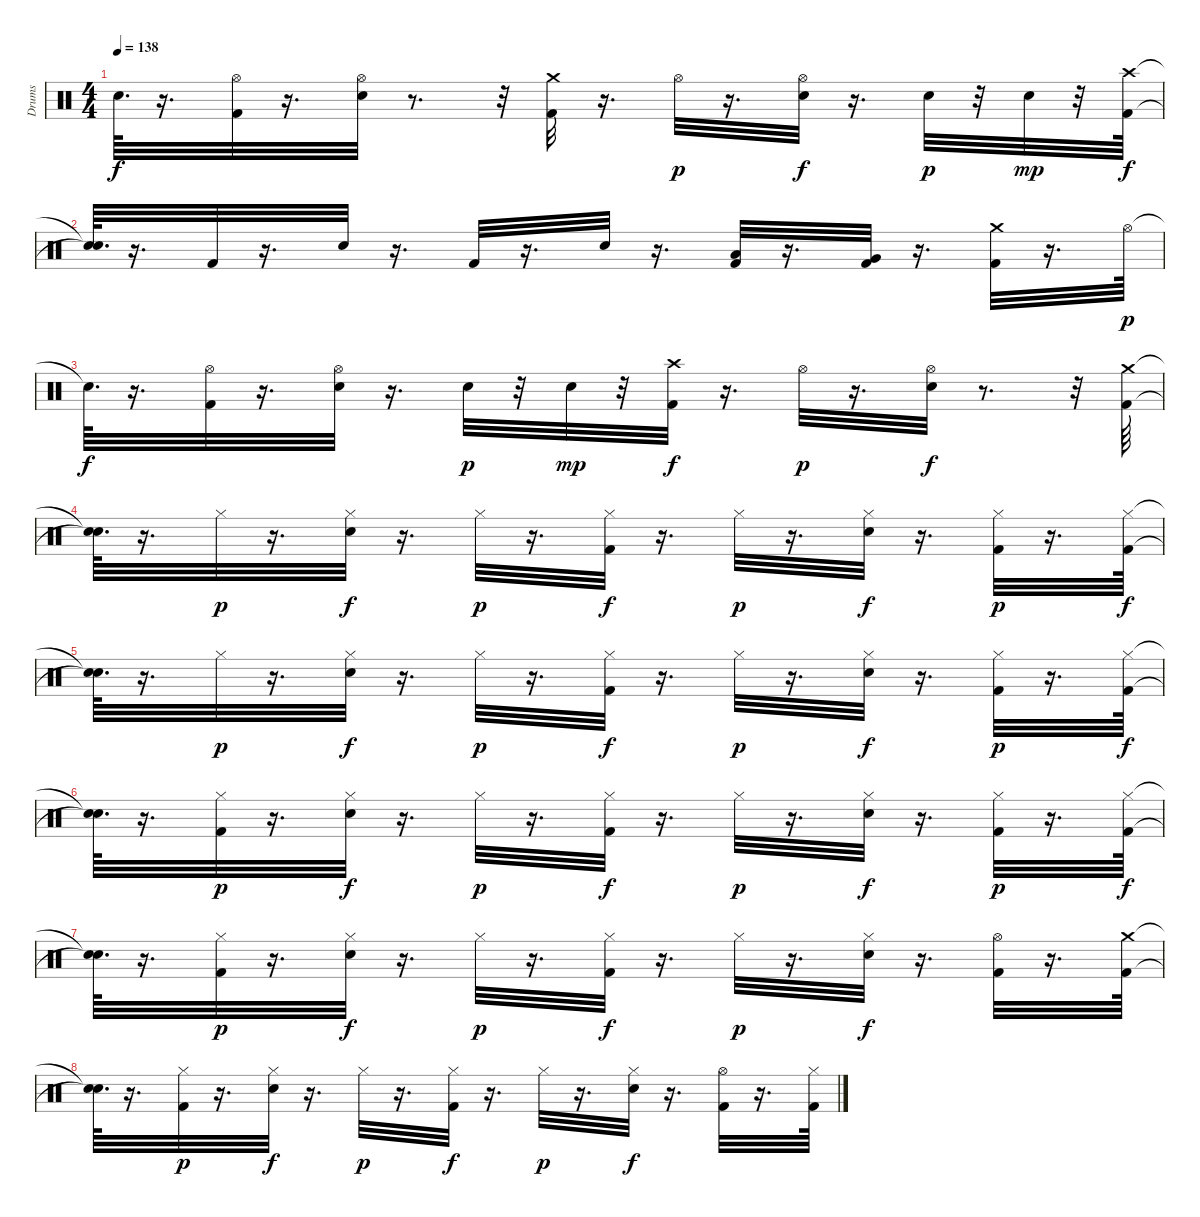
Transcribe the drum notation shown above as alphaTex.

\track ("Drums" "Drums") {instrument percussion}
\staff {score}
\articulation defaults
\ts (4 4)
\tempo 138
\clef neutral
\ks c "Snare (hit)"{t}.64{d dy f}
r.16{d} ("Hi-Hat (open)" "Kick (hit) 2").32 r.16{d} ("Hi-Hat (open)" "Electric Snare (hit)").32 r.8{d} r.32 ("Crash medium (hit)" "Kick (hit) 2").32 r.16{d} "Hi-Hat (open)".32{dy p} r.16{d} ("Hi-Hat (open)" "Electric Snare (hit)").32{dy f} r.16{d} "Electric Snare (hit)".32{dy p} r.32 "Electric Snare (hit)".32{dy mp} r.32 ("Crash high (hit)" "Kick (hit) 2").64{dy f} |
("Snare (hit)"{t} "Snare (hit)"{t}).64{d} r.16{d} "Kick (hit) 2".32 r.16{d} "Electric Snare (hit)".32 r.16{d} "Kick (hit) 2".32 r.16{d} "Electric Snare (hit)".32 r.16{d} ("Low Tom (hit)" "Kick (hit) 2").32 r.16{d} ("Very Low Tom (hit)" "Kick (hit) 2").32 r.16{d} ("Crash medium (hit)" "Kick (hit) 2").32 r.16{d} "Hi-Hat (open)".64{dy p} |
"Snare (hit)"{t}.64{d dy f} r.16{d} ("Hi-Hat (open)" "Kick (hit) 2").32 r.16{d} ("Hi-Hat (open)" "Electric Snare (hit)").32 r.16{d} "Electric Snare (hit)".32{dy p} r.32 "Electric Snare (hit)".32{dy mp} r.32 ("Crash high (hit)" "Kick (hit) 2").32{dy f} r.16{d} "Hi-Hat (open)".32{dy p} r.16{d} ("Hi-Hat (open)" "Electric Snare (hit)").32{dy f} r.8{d} r.32 ("Crash medium (hit)" "Kick (hit) 2").64 |
("Snare (hit)"{t} "Snare (hit)"{t}).64{d} r.16{d} "Hi-Hat (closed)".32{dy p} r.16{d} ("Hi-Hat (closed)" "Electric Snare (hit)").32{dy f} r.16{d} "Hi-Hat (closed)".32{dy p} r.16{d} ("Hi-Hat (closed)" "Kick (hit) 2").32{dy f} r.16{d} "Hi-Hat (closed)".32{dy p} r.16{d} ("Hi-Hat (closed)" "Electric Snare (hit)").32{dy f} r.16{d} ("Hi-Hat (closed)" "Kick (hit) 2").32{dy p} r.16{d} ("Hi-Hat (closed)" "Kick (hit) 2").64{dy f} |
("Snare (hit)"{t} "Snare (hit)"{t}).64{d} r.16{d} "Hi-Hat (closed)".32{dy p} r.16{d} ("Hi-Hat (closed)" "Electric Snare (hit)").32{dy f} r.16{d} "Hi-Hat (closed)".32{dy p} r.16{d} ("Hi-Hat (closed)" "Kick (hit) 2").32{dy f} r.16{d} "Hi-Hat (closed)".32{dy p} r.16{d} ("Hi-Hat (closed)" "Electric Snare (hit)").32{dy f} r.16{d} ("Hi-Hat (closed)" "Kick (hit) 2").32{dy p} r.16{d} ("Hi-Hat (closed)" "Kick (hit) 2").64{dy f} |
("Snare (hit)"{t} "Snare (hit)"{t}).64{d} r.16{d} ("Hi-Hat (closed)" "Kick (hit) 2").32{dy p} r.16{d} ("Hi-Hat (closed)" "Electric Snare (hit)").32{dy f} r.16{d} "Hi-Hat (closed)".32{dy p} r.16{d} ("Hi-Hat (closed)" "Kick (hit) 2").32{dy f} r.16{d} "Hi-Hat (closed)".32{dy p} r.16{d} ("Hi-Hat (closed)" "Electric Snare (hit)").32{dy f} r.16{d} ("Hi-Hat (closed)" "Kick (hit) 2").32{dy p} r.16{d} ("Hi-Hat (closed)" "Kick (hit) 2").64{dy f} |
("Snare (hit)"{t} "Snare (hit)"{t}).64{d} r.16{d} ("Hi-Hat (closed)" "Kick (hit) 2").32{dy p} r.16{d} ("Hi-Hat (closed)" "Electric Snare (hit)").32{dy f} r.16{d} "Hi-Hat (closed)".32{dy p} r.16{d} ("Hi-Hat (closed)" "Kick (hit) 2").32{dy f} r.16{d} "Hi-Hat (closed)".32{dy p} r.16{d} ("Hi-Hat (closed)" "Electric Snare (hit)").32{dy f} r.16{d} ("Hi-Hat (open)" "Kick (hit) 2").32 r.16{d} ("Crash medium (hit)" "Kick (hit) 2").64 |
("Snare (hit)"{t} "Snare (hit)"{t}).64{d} r.16{d} ("Hi-Hat (closed)" "Kick (hit) 2").32{dy p} r.16{d} ("Hi-Hat (closed)" "Electric Snare (hit)").32{dy f} r.16{d} "Hi-Hat (closed)".32{dy p} r.16{d} ("Hi-Hat (closed)" "Kick (hit) 2").32{dy f} r.16{d} "Hi-Hat (closed)".32{dy p} r.16{d} ("Hi-Hat (closed)" "Electric Snare (hit)").32{dy f} r.16{d} ("Hi-Hat (open)" "Kick (hit) 2").32 r.16{d} ("Hi-Hat (closed)" "Kick (hit) 2").64
